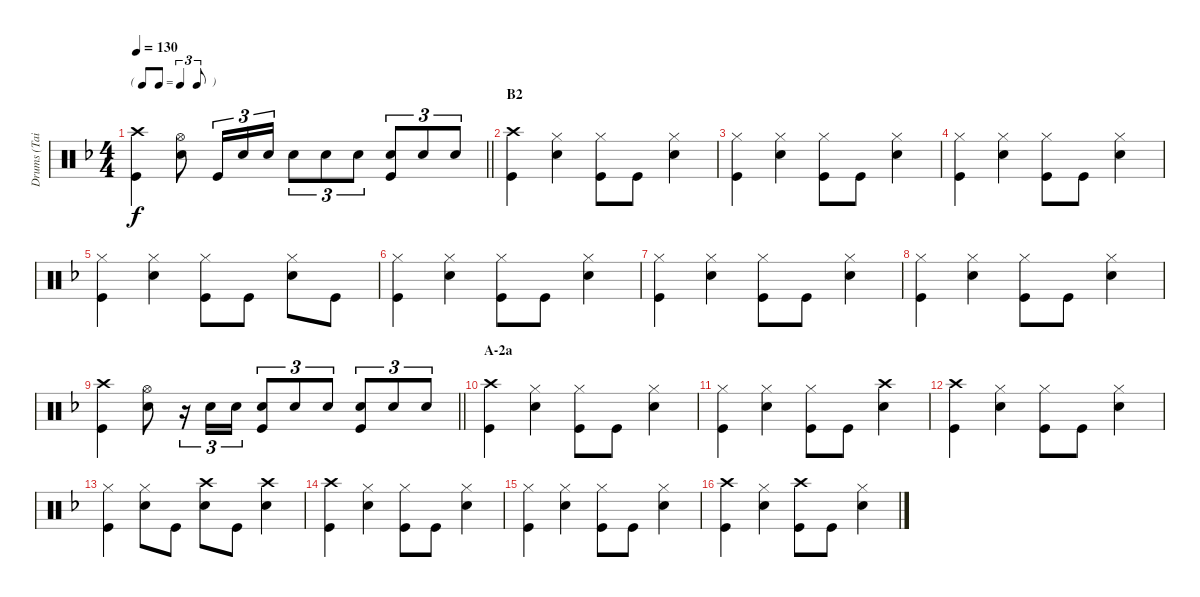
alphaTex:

\track ("Drums (Tainaka Ritsu)" "Drums (Tai") {instrument percussion}
\staff {score}
\articulation defaults
\ts (4 4)
\tf triplet8th
\tempo 130
\clef neutral
\barLineRight lightlight
\ks f
("Crash high (hit)" "Kick (hit)").4{dy f} ("Hi-Hat (open)" "Snare (hit) 2").8 "Kick (hit)".16{tu (3 2)} "Snare (hit) 2".16{tu (3 2)} "Snare (hit) 2".16{tu (3 2)} "Snare (hit) 2".8{tu (3 2)} "Snare (hit) 2".8{tu (3 2)} "Snare (hit) 2".8{tu (3 2)} ("Snare (hit) 2" "Kick (hit)").8{tu (3 2)} "Snare (hit) 2".8{tu (3 2)} "Snare (hit) 2".8{tu (3 2)} |
\section ("" "B2")
("Crash high (hit)" "Kick (hit)").4 ("Hi-Hat (closed)" "Snare (hit) 2").4 ("Hi-Hat (closed)" "Kick (hit)").8 "Kick (hit)".8 ("Hi-Hat (closed)" "Snare (hit) 2").4 |
("Hi-Hat (closed)" "Kick (hit)").4 ("Hi-Hat (closed)" "Snare (hit) 2").4 ("Hi-Hat (closed)" "Kick (hit)").8 "Kick (hit)".8 ("Hi-Hat (closed)" "Snare (hit) 2").4 |
("Hi-Hat (closed)" "Kick (hit)").4 ("Hi-Hat (closed)" "Snare (hit) 2").4 ("Hi-Hat (closed)" "Kick (hit)").8 "Kick (hit)".8 ("Hi-Hat (closed)" "Snare (hit) 2").4 |
("Hi-Hat (closed)" "Kick (hit)").4 ("Hi-Hat (closed)" "Snare (hit) 2").4 ("Hi-Hat (closed)" "Kick (hit)").8 "Kick (hit)".8 ("Hi-Hat (closed)" "Snare (hit) 2").8 "Kick (hit)".8 |
("Hi-Hat (closed)" "Kick (hit)").4 ("Hi-Hat (closed)" "Snare (hit) 2").4 ("Hi-Hat (closed)" "Kick (hit)").8 "Kick (hit)".8 ("Hi-Hat (closed)" "Snare (hit) 2").4 |
("Hi-Hat (closed)" "Kick (hit)").4 ("Hi-Hat (closed)" "Snare (hit) 2").4 ("Hi-Hat (closed)" "Kick (hit)").8 "Kick (hit)".8 ("Hi-Hat (closed)" "Snare (hit) 2").4 |
("Hi-Hat (closed)" "Kick (hit)").4 ("Hi-Hat (closed)" "Snare (hit) 2").4 ("Hi-Hat (closed)" "Kick (hit)").8 "Kick (hit)".8 ("Hi-Hat (closed)" "Snare (hit) 2").4 |
\barLineRight lightlight
("Crash high (hit)" "Kick (hit)").4 ("Hi-Hat (open)" "Snare (hit) 2").8 r.16{tu (3 2)} "Snare (hit) 2".16{tu (3 2)} "Snare (hit) 2".16{tu (3 2)} ("Snare (hit) 2" "Kick (hit)").8{tu (3 2)} "Snare (hit) 2".8{tu (3 2)} "Snare (hit) 2".8{tu (3 2)} ("Snare (hit) 2" "Kick (hit)").8{tu (3 2)} "Snare (hit) 2".8{tu (3 2)} "Snare (hit) 2".8{tu (3 2)} |
\section ("" "A-2a")
("Crash high (hit)" "Kick (hit)").4 ("Hi-Hat (closed)" "Snare (hit) 2").4 ("Hi-Hat (closed)" "Kick (hit)").8 "Kick (hit)".8 ("Hi-Hat (closed)" "Snare (hit) 2").4 |
("Hi-Hat (closed)" "Kick (hit)").4 ("Hi-Hat (closed)" "Snare (hit) 2").4 ("Hi-Hat (closed)" "Kick (hit)").8 "Kick (hit)".8 ("Crash high (hit)" "Snare (hit) 2").4 |
("Crash high (hit)" "Kick (hit)").4 ("Hi-Hat (closed)" "Snare (hit) 2").4 ("Hi-Hat (closed)" "Kick (hit)").8 "Kick (hit)".8 ("Hi-Hat (closed)" "Snare (hit) 2").4 |
("Hi-Hat (closed)" "Kick (hit)").4 ("Hi-Hat (closed)" "Snare (hit) 2").8 "Kick (hit)".8 ("Crash high (hit)" "Snare (hit) 2").8 "Kick (hit)".8 ("Crash high (hit)" "Snare (hit) 2").4 |
("Crash high (hit)" "Kick (hit)").4 ("Hi-Hat (closed)" "Snare (hit) 2").4 ("Hi-Hat (closed)" "Kick (hit)").8 "Kick (hit)".8 ("Hi-Hat (closed)" "Snare (hit) 2").4 |
("Hi-Hat (closed)" "Kick (hit)").4 ("Hi-Hat (closed)" "Snare (hit) 2").4 ("Hi-Hat (closed)" "Kick (hit)").8 "Kick (hit)".8 ("Hi-Hat (closed)" "Snare (hit) 2").4 |
("Crash high (hit)" "Kick (hit)").4 ("Hi-Hat (closed)" "Snare (hit) 2").4 ("Crash high (hit)" "Kick (hit)").8 "Kick (hit)".8 ("Hi-Hat (closed)" "Snare (hit) 2").4
